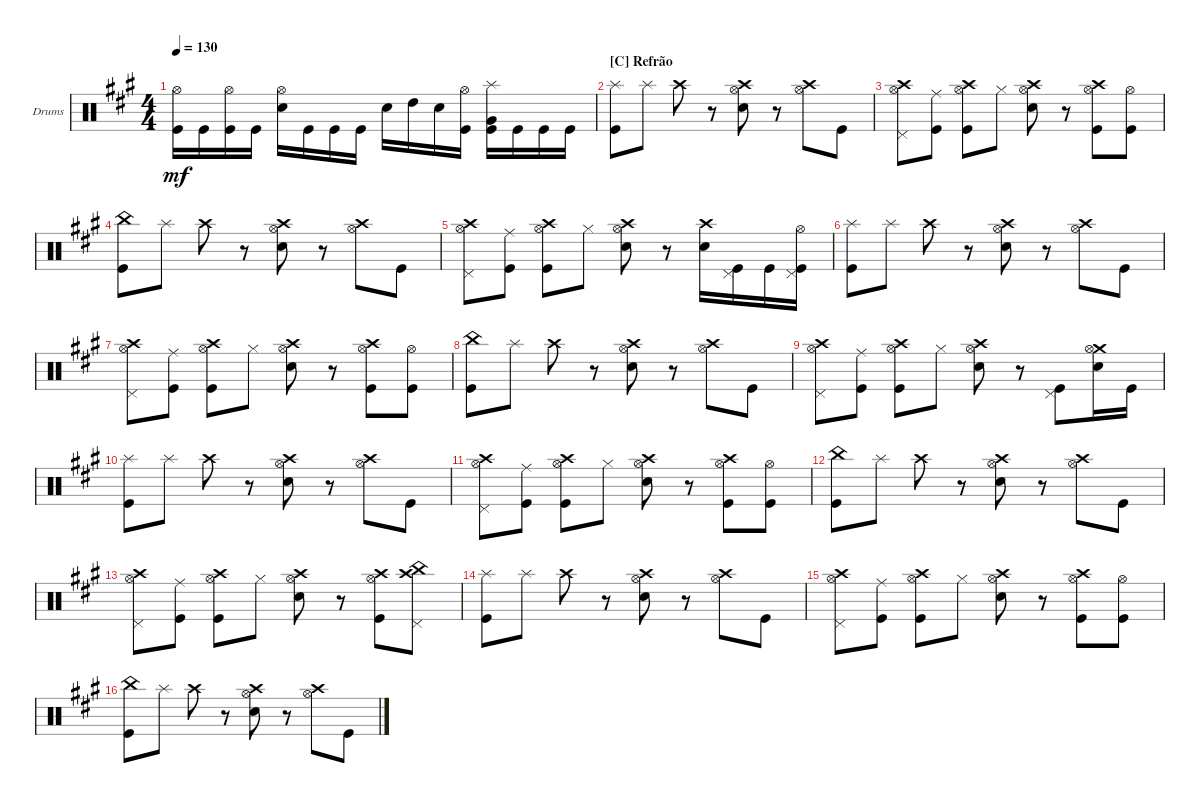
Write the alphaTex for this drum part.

\defaultSystemsLayout 4
\bracketExtendMode groupsimilarinstruments
\firstSystemTrackNameOrientation horizontal
\otherSystemsTrackNameOrientation horizontal
\track ("Bateria" "Drums") {instrument percussion}
\staff {score}
\articulation defaults
\ts (4 4)
\tempo 130
\clef neutral
\ks a
("Kick (hit)" "Hi-Hat (open)").16{dy mf} "Kick (hit)".16 ("Kick (hit)" "Hi-Hat (open)").16 "Kick (hit)".16 ("Snare (hit) 2" "Hi-Hat (open)").16 "Kick (hit)".16 "Kick (hit)".16 "Kick (hit)".16 "Snare (hit) 2".16 "High Tom (hit)".16 "Snare (hit) 2".16 ("Kick (hit)" "Hi-Hat (open)").16 ("Very Low Tom (hit)" "Splash (hit)" "Kick (hit)").16 "Kick (hit)".16 "Kick (hit)".16 "Kick (hit)".16 |
\section ("C" "Refrão")
("Kick (hit)" "Splash (hit)").8 "Splash (hit)".8 "Crash high (hit)".8 r.8 ("Snare (hit) 2" "Hi-Hat (open)" "Crash high (hit)").8 r.8 ("Hi-Hat (open)" "Crash high (hit)").8 "Kick (hit)".8 |
("Pedal Hi-Hat (hit)" "Hi-Hat (open)" "Crash high (hit)").8 ("Kick (hit)" "Ride (middle)").8 ("Kick (hit)" "Hi-Hat (open)" "Crash high (hit)").8 "Hi-Hat (closed)".8 ("Snare (hit) 2" "Hi-Hat (open)" "Crash high (hit)").8 r.8 ("Kick (hit)" "Hi-Hat (open)" "Crash high (hit)").8 ("Kick (hit)" "Hi-Hat (open)").8 |
("Kick (hit)" "China (hit)").8 "Splash (hit)".8 "Crash high (hit)".8 r.8 ("Snare (hit) 2" "Hi-Hat (open)" "Crash high (hit)").8 r.8 ("Hi-Hat (open)" "Crash high (hit)").8 "Kick (hit)".8 |
("Pedal Hi-Hat (hit)" "Hi-Hat (open)" "Crash high (hit)").8 ("Kick (hit)" "Ride (middle)").8 ("Kick (hit)" "Hi-Hat (open)" "Crash high (hit)").8 "Hi-Hat (closed)".8 ("Snare (hit) 2" "Hi-Hat (open)" "Crash high (hit)").8 r.8 ("Crash high (hit)" "Snare (hit) 2").16 ("Kick (hit)" "Pedal Hi-Hat (hit)").16 "Kick (hit)".16 ("Hi-Hat (open)" "Kick (hit)" "Pedal Hi-Hat (hit)").16 |
("Kick (hit)" "Splash (hit)").8 "Splash (hit)".8 "Crash high (hit)".8 r.8 ("Snare (hit) 2" "Hi-Hat (open)" "Crash high (hit)").8 r.8 ("Hi-Hat (open)" "Crash high (hit)").8 "Kick (hit)".8 |
("Pedal Hi-Hat (hit)" "Hi-Hat (open)" "Crash high (hit)").8 ("Kick (hit)" "Ride (middle)").8 ("Kick (hit)" "Hi-Hat (open)" "Crash high (hit)").8 "Hi-Hat (closed)".8 ("Snare (hit) 2" "Hi-Hat (open)" "Crash high (hit)").8 r.8 ("Kick (hit)" "Hi-Hat (open)" "Crash high (hit)").8 ("Kick (hit)" "Hi-Hat (open)").8 |
("Kick (hit)" "China (hit)").8 "Splash (hit)".8 "Crash high (hit)".8 r.8 ("Snare (hit) 2" "Hi-Hat (open)" "Crash high (hit)").8 r.8 ("Hi-Hat (open)" "Crash high (hit)").8 "Kick (hit)".8 |
("Pedal Hi-Hat (hit)" "Hi-Hat (open)" "Crash high (hit)").8 ("Kick (hit)" "Ride (middle)").8 ("Kick (hit)" "Hi-Hat (open)" "Crash high (hit)").8 "Hi-Hat (closed)".8 ("Snare (hit) 2" "Hi-Hat (open)" "Crash high (hit)").8 r.8 ("Kick (hit)" "Pedal Hi-Hat (hit)").8 ("Snare (hit) 2" "Crash medium (hit)" "Hi-Hat (open)").16 "Kick (hit)".16 |
("Kick (hit)" "Splash (hit)").8 "Splash (hit)".8 "Crash high (hit)".8 r.8 ("Snare (hit) 2" "Hi-Hat (open)" "Crash high (hit)").8 r.8 ("Hi-Hat (open)" "Crash high (hit)").8 "Kick (hit)".8 |
("Pedal Hi-Hat (hit)" "Hi-Hat (open)" "Crash high (hit)").8 ("Kick (hit)" "Ride (middle)").8 ("Kick (hit)" "Hi-Hat (open)" "Crash high (hit)").8 "Hi-Hat (closed)".8 ("Snare (hit) 2" "Hi-Hat (open)" "Crash high (hit)").8 r.8 ("Kick (hit)" "Hi-Hat (open)" "Crash high (hit)").8 ("Kick (hit)" "Hi-Hat (open)").8 |
("Kick (hit)" "China (hit)").8 "Splash (hit)".8 "Crash high (hit)".8 r.8 ("Snare (hit) 2" "Hi-Hat (open)" "Crash high (hit)").8 r.8 ("Hi-Hat (open)" "Crash high (hit)").8 "Kick (hit)".8 |
("Pedal Hi-Hat (hit)" "Hi-Hat (open)" "Crash high (hit)").8 ("Kick (hit)" "Ride (middle)").8 ("Kick (hit)" "Hi-Hat (open)" "Crash high (hit)").8 "Hi-Hat (closed)".8 ("Snare (hit) 2" "Hi-Hat (open)" "Crash high (hit)").8 r.8 ("Crash high (hit)" "Hi-Hat (open)" "Kick (hit)").8 ("Crash high (hit)" "China (hit)" "Pedal Hi-Hat (hit)").8 |
("Kick (hit)" "Splash (hit)").8 "Splash (hit)".8 "Crash high (hit)".8 r.8 ("Snare (hit) 2" "Hi-Hat (open)" "Crash high (hit)").8 r.8 ("Hi-Hat (open)" "Crash high (hit)").8 "Kick (hit)".8 |
("Pedal Hi-Hat (hit)" "Hi-Hat (open)" "Crash high (hit)").8 ("Kick (hit)" "Ride (middle)").8 ("Kick (hit)" "Hi-Hat (open)" "Crash high (hit)").8 "Hi-Hat (closed)".8 ("Snare (hit) 2" "Hi-Hat (open)" "Crash high (hit)").8 r.8 ("Kick (hit)" "Hi-Hat (open)" "Crash high (hit)").8 ("Kick (hit)" "Hi-Hat (open)").8 |
("Kick (hit)" "China (hit)").8 "Splash (hit)".8 "Crash high (hit)".8 r.8 ("Snare (hit) 2" "Hi-Hat (open)" "Crash high (hit)").8 r.8 ("Hi-Hat (open)" "Crash high (hit)").8 "Kick (hit)".8
